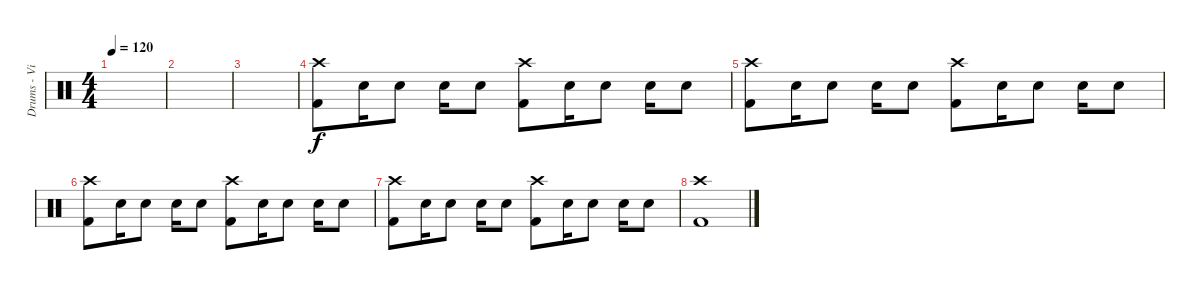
\track ("Drums - Vicko" "Drums - Vi") {instrument percussion}
\staff {score}
\articulation defaults
\ts (4 4)
\tempo 120
\clef neutral
\ks c
|
|
|
("Kick (hit) 2" "Crash high (hit)").8 "Snare (hit) 2".16 "Snare (hit) 2".8 "Snare (hit) 2".16 "Snare (hit) 2".8 ("Kick (hit) 2" "Crash high (hit)").8 "Snare (hit) 2".16 "Snare (hit) 2".8 "Snare (hit) 2".16 "Snare (hit) 2".8 |
("Kick (hit) 2" "Crash high (hit)").8 "Snare (hit) 2".16 "Snare (hit) 2".8 "Snare (hit) 2".16 "Snare (hit) 2".8 ("Kick (hit) 2" "Crash high (hit)").8 "Snare (hit) 2".16 "Snare (hit) 2".8 "Snare (hit) 2".16 "Snare (hit) 2".8 |
("Kick (hit) 2" "Crash high (hit)").8 "Snare (hit) 2".16 "Snare (hit) 2".8 "Snare (hit) 2".16 "Snare (hit) 2".8 ("Kick (hit) 2" "Crash high (hit)").8 "Snare (hit) 2".16 "Snare (hit) 2".8 "Snare (hit) 2".16 "Snare (hit) 2".8 |
("Kick (hit) 2" "Crash high (hit)").8 "Snare (hit) 2".16 "Snare (hit) 2".8 "Snare (hit) 2".16 "Snare (hit) 2".8 ("Kick (hit) 2" "Crash high (hit)").8 "Snare (hit) 2".16 "Snare (hit) 2".8 "Snare (hit) 2".16 "Snare (hit) 2".8 |
("Kick (hit) 2" "Crash high (hit)").1
